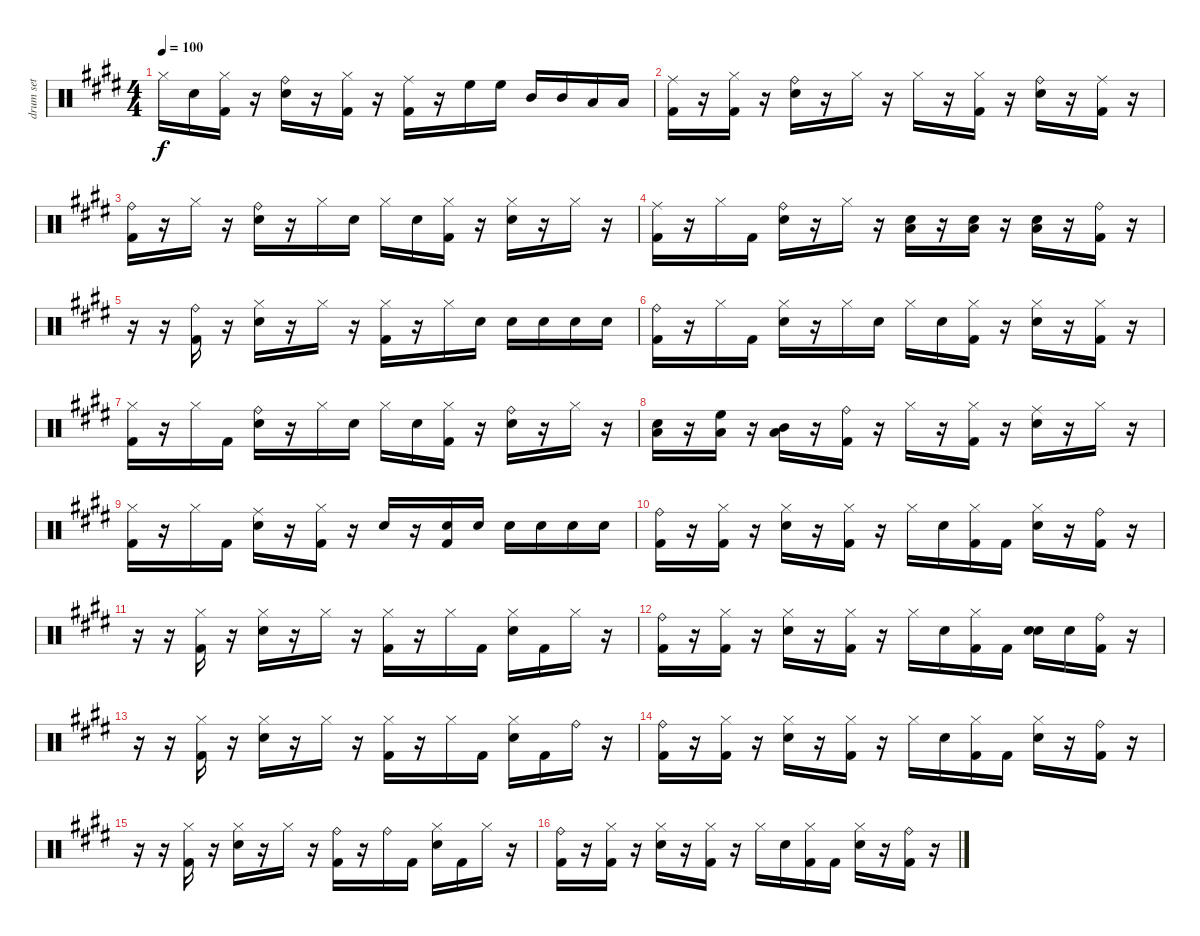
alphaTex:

\track ("drum set" "drum set") {instrument percussion}
\staff {score}
\articulation defaults
\ts (4 4)
\tempo 100
\clef neutral
\ks e "Hi-Hat (closed)".16{dy f} "Snare (hit) 2".16
("Hi-Hat (closed)" "Kick (hit) 2").16 r.16 ("Ride (bell)" "Snare (hit) 2").16 r.16 ("Hi-Hat (closed)" "Kick (hit) 2").16 r.16 ("Ride (middle)" "Kick (hit) 2").16 r.16 "High Floor Tom (hit)".16 "High Floor Tom (hit)".16 "Mid Tom (hit)".16 "Mid Tom (hit)".16 "Low Tom (hit)".16 "Low Tom (hit)".16 |
("Ride (middle)" "Kick (hit) 2").16 r.16 ("Hi-Hat (closed)" "Kick (hit) 2").16 r.16 ("Ride (bell)" "Snare (hit) 2").16 r.16 "Hi-Hat (closed)".16 r.16 "Hi-Hat (closed)".16 r.16 ("Hi-Hat (closed)" "Kick (hit) 2").16 r.16 ("Ride (bell)" "Snare (hit) 2").16 r.16 ("Ride (middle)" "Kick (hit) 2").16 r.16 |
("Ride (bell)" "Kick (hit) 2").16 r.16 "Hi-Hat (closed)".16 r.16 ("Ride (bell)" "Snare (hit) 2").16 r.16 "Hi-Hat (closed)".16 "Snare (hit) 2".16 "Hi-Hat (closed)".16 "Snare (hit) 2".16 ("Kick (hit) 2" "Hi-Hat (closed)").16 r.16 ("Hi-Hat (closed)" "Snare (hit) 2").16 r.16 "Hi-Hat (closed)".16 r.16 |
("Ride (middle)" "Kick (hit) 2").16 r.16 "Hi-Hat (closed)".16 "Kick (hit) 2".16 ("Ride (bell)" "Snare (hit) 2").16 r.16 "Hi-Hat (closed)".16 r.16 ("Snare (hit) 2" "Low Tom (hit)").16 r.16 ("Snare (hit) 2" "Low Tom (hit)").16 r.16 ("Snare (hit) 2" "Low Tom (hit)").16 r.16 ("Ride (bell)" "Kick (hit) 2").16 r.16 |
r.16 r.16 ("Ride (bell)" "Kick (hit) 2").16 r.16 ("Hi-Hat (closed)" "Snare (hit) 2").16 r.16 "Hi-Hat (closed)".16 r.16 ("Hi-Hat (closed)" "Kick (hit) 2").16 r.16 "Hi-Hat (closed)".16 "Snare (hit) 2".16 "Snare (hit) 2".16 "Snare (hit) 2".16 "Snare (hit) 2".16 "Snare (hit) 2".16 |
("Ride (bell)" "Kick (hit) 2").16 r.16 "Hi-Hat (closed)".16 "Kick (hit) 2".16 ("Hi-Hat (closed)" "Snare (hit) 2").16 r.16 "Hi-Hat (closed)".16 "Snare (hit) 2".16 "Hi-Hat (closed)".16 "Snare (hit) 2".16 ("Hi-Hat (closed)" "Kick (hit) 2").16 r.16 ("Hi-Hat (closed)" "Snare (hit) 2").16 r.16 ("Hi-Hat (closed)" "Kick (hit) 2").16 r.16 |
("Hi-Hat (closed)" "Kick (hit) 2").16 r.16 "Hi-Hat (closed)".16 "Kick (hit) 2".16 ("Ride (bell)" "Snare (hit) 2").16 r.16 "Hi-Hat (closed)".16 "Snare (hit) 2".16 "Hi-Hat (closed)".16 "Snare (hit) 2".16 ("Hi-Hat (closed)" "Kick (hit) 2").16 r.16 ("Ride (bell)" "Snare (hit) 2").16 r.16 "Hi-Hat (closed)".16 r.16 |
("Snare (hit) 2" "Low Tom (hit)").16 r.16 ("High Floor Tom (hit)" "Low Tom (hit)").16 r.16 ("Mid Tom (hit)" "Low Tom (hit)").16 r.16 ("Ride (bell)" "Kick (hit) 2").16 r.16 "Hi-Hat (closed)".16 r.16 ("Hi-Hat (closed)" "Kick (hit) 2").16 r.16 ("Ride (middle)" "Snare (hit) 2").16 r.16 "Hi-Hat (closed)".16 r.16 |
("Hi-Hat (closed)" "Kick (hit) 2").16 r.16 "Hi-Hat (closed)".16 "Kick (hit) 2".16 ("Ride (middle)" "Snare (hit) 2").16 r.16 ("Hi-Hat (closed)" "Kick (hit) 2").16 r.16 "Snare (hit) 2".16 r.16 ("Snare (hit) 2" "Kick (hit) 2").16 "Snare (hit) 2".16 "Snare (hit) 2".16 "Snare (hit) 2".16 "Snare (hit) 2".16 "Snare (hit) 2".16 |
("Ride (bell)" "Kick (hit) 2").16 r.16 ("Hi-Hat (closed)" "Kick (hit) 2").16 r.16 ("Hi-Hat (closed)" "Snare (hit) 2").16 r.16 ("Hi-Hat (closed)" "Kick (hit) 2").16 r.16 "Hi-Hat (closed)".16 "Snare (hit) 2".16 ("Hi-Hat (closed)" "Kick (hit) 2").16 "Kick (hit) 2".16 ("Hi-Hat (closed)" "Snare (hit) 2").16 r.16 ("Ride (bell)" "Kick (hit) 2").16 r.16 |
r.16 r.16 ("Hi-Hat (closed)" "Kick (hit) 2").16 r.16 ("Hi-Hat (closed)" "Snare (hit) 2").16 r.16 "Hi-Hat (closed)".16 r.16 ("Hi-Hat (closed)" "Kick (hit) 2").16 r.16 "Hi-Hat (closed)".16 "Kick (hit) 2".16 ("Hi-Hat (closed)" "Snare (hit) 2").16 "Kick (hit) 2".16 "Hi-Hat (closed)".16 r.16 |
("Ride (bell)" "Kick (hit) 2").16 r.16 ("Hi-Hat (closed)" "Kick (hit) 2").16 r.16 ("Hi-Hat (closed)" "Snare (hit) 2").16 r.16 ("Hi-Hat (closed)" "Kick (hit) 2").16 r.16 "Hi-Hat (closed)".16 "Snare (hit) 2".16 ("Hi-Hat (closed)" "Kick (hit) 2").16 "Kick (hit) 2".16 ("Snare (hit) 2" "Snare (hit) 2").16 "Snare (hit) 2".16 ("Ride (bell)" "Kick (hit) 2").16 r.16 |
r.16 r.16 ("Hi-Hat (closed)" "Kick (hit) 2").16 r.16 ("Hi-Hat (closed)" "Snare (hit) 2").16 r.16 "Hi-Hat (closed)".16 r.16 ("Hi-Hat (closed)" "Kick (hit) 2").16 r.16 "Hi-Hat (closed)".16 "Kick (hit) 2".16 ("Hi-Hat (closed)" "Snare (hit) 2").16 "Kick (hit) 2".16 "Ride (bell)".16 r.16 |
("Ride (bell)" "Kick (hit) 2").16 r.16 ("Hi-Hat (closed)" "Kick (hit) 2").16 r.16 ("Hi-Hat (closed)" "Snare (hit) 2").16 r.16 ("Hi-Hat (closed)" "Kick (hit) 2").16 r.16 "Hi-Hat (closed)".16 "Snare (hit) 2".16 ("Hi-Hat (closed)" "Kick (hit) 2").16 "Kick (hit) 2".16 ("Hi-Hat (closed)" "Snare (hit) 2").16 r.16 ("Ride (bell)" "Kick (hit) 2").16 r.16 |
r.16 r.16 ("Hi-Hat (closed)" "Kick (hit) 2").16 r.16 ("Hi-Hat (closed)" "Snare (hit) 2").16 r.16 "Hi-Hat (closed)".16 r.16 ("Ride (bell)" "Kick (hit) 2").16 r.16 "Ride (bell)".16 "Kick (hit) 2".16 ("Hi-Hat (closed)" "Snare (hit) 2").16 "Kick (hit) 2".16 "Hi-Hat (closed)".16 r.16 |
("Ride (bell)" "Kick (hit) 2").16 r.16 ("Hi-Hat (closed)" "Kick (hit) 2").16 r.16 ("Hi-Hat (closed)" "Snare (hit) 2").16 r.16 ("Hi-Hat (closed)" "Kick (hit) 2").16 r.16 "Hi-Hat (closed)".16 "Snare (hit) 2".16 ("Hi-Hat (closed)" "Kick (hit) 2").16 "Kick (hit) 2".16 ("Hi-Hat (closed)" "Snare (hit) 2").16 r.16 ("Ride (bell)" "Kick (hit) 2").16 r.16
